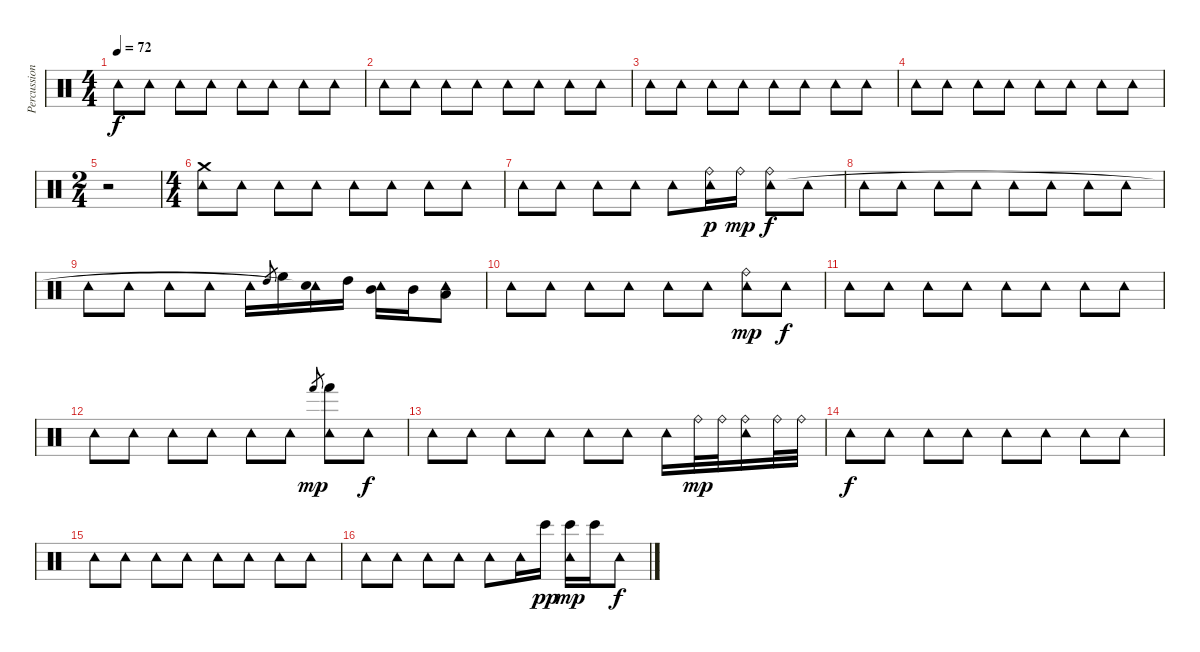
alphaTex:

\track ("Percussion" "Percussion") {instrument percussion}
\staff {score}
\articulation defaults
\ts (4 4)
\tempo 72
\clef neutral
\ks c "Tambourine (hit)".8{dy f} "Tambourine (hit)".8 "Tambourine (hit)".8 "Tambourine (hit)".8 "Tambourine (hit)".8 "Tambourine (hit)".8 "Tambourine (hit)".8 "Tambourine (hit)".8
|
"Tambourine (hit)".8 "Tambourine (hit)".8 "Tambourine (hit)".8 "Tambourine (hit)".8 "Tambourine (hit)".8 "Tambourine (hit)".8 "Tambourine (hit)".8 "Tambourine (hit)".8 |
"Tambourine (hit)".8 "Tambourine (hit)".8 "Tambourine (hit)".8 "Tambourine (hit)".8 "Tambourine (hit)".8 "Tambourine (hit)".8 "Tambourine (hit)".8 "Tambourine (hit)".8 |
"Tambourine (hit)".8 "Tambourine (hit)".8 "Tambourine (hit)".8 "Tambourine (hit)".8 "Tambourine (hit)".8 "Tambourine (hit)".8 "Tambourine (hit)".8 "Tambourine (hit)".8 |
\ts (2 4)
r.2 |
\ts (4 4)
("Crash medium (hit)" "Tambourine (hit)").8 "Tambourine (hit)".8 "Tambourine (hit)".8 "Tambourine (hit)".8 "Tambourine (hit)".8 "Tambourine (hit)".8 "Tambourine (hit)".8 "Tambourine (hit)".8 |
"Tambourine (hit)".8 "Tambourine (hit)".8 "Tambourine (hit)".8 "Tambourine (hit)".8 "Tambourine (hit)".8 ("Ride (bell)" "Tambourine (hit)").16{dy p} "Ride (bell)".16{dy mp} ("Ride (bell)" "Tambourine (hit)").8{dy f} "Tambourine (hit)".8 |
"Tambourine (hit)".8 "Tambourine (hit)".8 "Tambourine (hit)".8 "Tambourine (hit)".8 "Tambourine (hit)".8 "Tambourine (hit)".8 "Tambourine (hit)".8 "Tambourine (hit)".8 |
"Tambourine (hit)".8 "Tambourine (hit)".8 "Tambourine (hit)".8 "Tambourine (hit)".8 "Tambourine (hit)".16 "High Tom (hit)".8{gr} "High Floor Tom (hit)".16 ("Tambourine (hit)" "Snare (hit)"{t}).16 "High Tom (hit)".16 ("Tambourine (hit)" "Mid Tom (hit)").16 "Mid Tom (hit)".16 ("Tambourine (hit)" "Low Tom (hit)").8 |
"Tambourine (hit)".8 "Tambourine (hit)".8 "Tambourine (hit)".8 "Tambourine (hit)".8 "Tambourine (hit)".8 "Tambourine (hit)".8 ("Tambourine (hit)" "Ride (bell)").8{dy mp} "Tambourine (hit)".8{dy f} |
"Tambourine (hit)".8 "Tambourine (hit)".8 "Tambourine (hit)".8 "Tambourine (hit)".8 "Tambourine (hit)".8 "Tambourine (hit)".8 "Tambourine (hit)".8 "Tambourine (hit)".8 |
"Tambourine (hit)".8 "Tambourine (hit)".8 "Tambourine (hit)".8 "Tambourine (hit)".8 "Tambourine (hit)".8 "Tambourine (hit)".8 "Hand (hit)".8{gr dy mp} ("Tambourine (hit)" "Hand (hit)").8 "Tambourine (hit)".8{dy f} |
"Tambourine (hit)".8 "Tambourine (hit)".8 "Tambourine (hit)".8 "Tambourine (hit)".8 "Tambourine (hit)".8 "Tambourine (hit)".8 "Tambourine (hit)".16 "Ride (bell)".32{dy mp} "Ride (bell)".32 ("Tambourine (hit)" "Ride (bell)").16 "Ride (bell)".32 "Ride (bell)".32 |
"Tambourine (hit)".8{dy f} "Tambourine (hit)".8 "Tambourine (hit)".8 "Tambourine (hit)".8 "Tambourine (hit)".8 "Tambourine (hit)".8 "Tambourine (hit)".8 "Tambourine (hit)".8 |
"Tambourine (hit)".8 "Tambourine (hit)".8 "Tambourine (hit)".8 "Tambourine (hit)".8 "Tambourine (hit)".8 "Tambourine (hit)".8 "Tambourine (hit)".8 "Tambourine (hit)".8 |
"Tambourine (hit)".8 "Tambourine (hit)".8 "Tambourine (hit)".8 "Tambourine (hit)".8 "Tambourine (hit)".8 "Tambourine (hit)".16 "Bongo High (hit)".16{dy pp} ("Tambourine (hit)" "Bongo High (hit)").16{dy mp} "Bongo High (hit)".16 "Tambourine (hit)".8{dy f}
